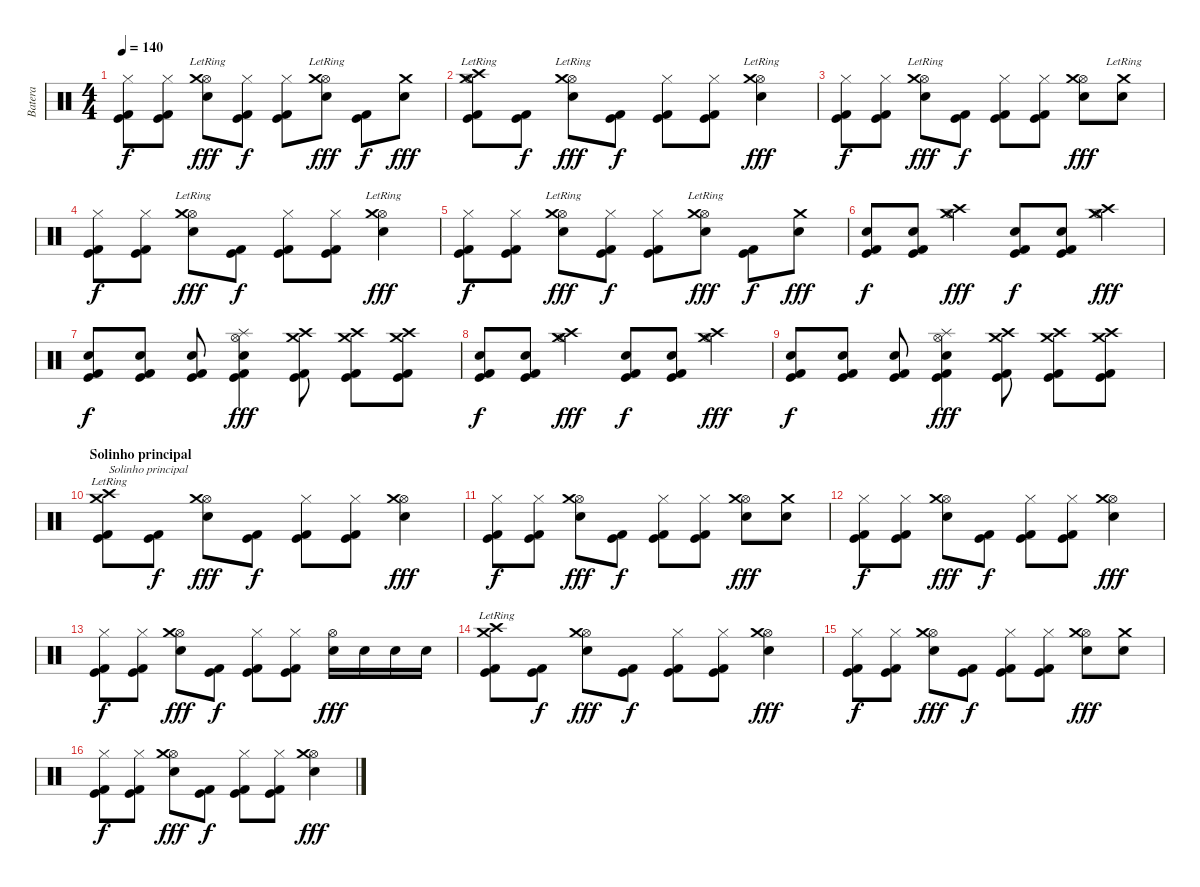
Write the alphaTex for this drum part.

\track ("Batera" "Batera") {instrument percussion}
\staff {score}
\articulation defaults
\ts (4 4)
\tempo 140
\clef neutral
\ks c
("Hi-Hat (closed)" "Kick (hit)" "Kick (hit) 2").8{dy f} ("Hi-Hat (closed)" "Kick (hit)" "Kick (hit) 2").8 ("Hi-Hat (open)" "Electric Snare (hit)" "Crash medium (hit)"{lr}).8{dy fff} ("Hi-Hat (closed)" "Kick (hit)" "Kick (hit) 2").8{dy f} ("Hi-Hat (closed)" "Kick (hit)" "Kick (hit) 2").8 ("Hi-Hat (open)" "Electric Snare (hit)" "Crash medium (hit)"{lr}).8{dy fff} ("Kick (hit)" "Kick (hit) 2").8{dy f} ("Electric Snare (hit)" "Crash medium (hit)").8{dy fff} |
("Hi-Hat (open)" "Kick (hit)" "Crash medium (hit)"{lr} "Crash high (hit)"{lr} "Kick (hit) 2").8 ("Kick (hit)" "Kick (hit) 2").8{dy f} ("Hi-Hat (open)" "Electric Snare (hit)" "Crash medium (hit)"{lr}).8{dy fff} ("Kick (hit)" "Kick (hit) 2").8{dy f} ("Hi-Hat (closed)" "Kick (hit)" "Kick (hit) 2").8 ("Hi-Hat (closed)" "Kick (hit)" "Kick (hit) 2").8 ("Hi-Hat (open)" "Electric Snare (hit)" "Crash medium (hit)"{lr}).4{dy fff} |
("Hi-Hat (closed)" "Kick (hit)" "Kick (hit) 2").8{dy f} ("Hi-Hat (closed)" "Kick (hit)" "Kick (hit) 2").8 ("Hi-Hat (open)" "Electric Snare (hit)" "Crash medium (hit)"{lr}).8{dy fff} ("Kick (hit)" "Kick (hit) 2").8{dy f} ("Hi-Hat (closed)" "Kick (hit)" "Kick (hit) 2").8 ("Hi-Hat (closed)" "Kick (hit)" "Kick (hit) 2").8 ("Hi-Hat (open)" "Electric Snare (hit)" "Crash medium (hit)").8{dy fff} ("Electric Snare (hit)" "Crash medium (hit)"{lr}).8 |
("Hi-Hat (closed)" "Kick (hit)" "Kick (hit) 2").8{dy f} ("Hi-Hat (closed)" "Kick (hit)" "Kick (hit) 2").8 ("Hi-Hat (open)" "Electric Snare (hit)" "Crash medium (hit)"{lr}).8{dy fff} ("Kick (hit)" "Kick (hit) 2").8{dy f} ("Hi-Hat (closed)" "Kick (hit)" "Kick (hit) 2").8 ("Hi-Hat (closed)" "Kick (hit)" "Kick (hit) 2").8 ("Hi-Hat (open)" "Electric Snare (hit)" "Crash medium (hit)"{lr}).4{dy fff} |
("Hi-Hat (closed)" "Kick (hit)" "Kick (hit) 2").8{dy f} ("Hi-Hat (closed)" "Kick (hit)" "Kick (hit) 2").8 ("Hi-Hat (open)" "Electric Snare (hit)" "Crash medium (hit)"{lr}).8{dy fff} ("Hi-Hat (closed)" "Kick (hit)" "Kick (hit) 2").8{dy f} ("Hi-Hat (closed)" "Kick (hit)" "Kick (hit) 2").8 ("Hi-Hat (open)" "Electric Snare (hit)" "Crash medium (hit)"{lr}).8{dy fff} ("Kick (hit)" "Kick (hit) 2").8{dy f} ("Electric Snare (hit)" "Crash medium (hit)").8{dy fff} |
("Kick (hit)" "Electric Snare (hit)" "Kick (hit) 2").8{dy f} ("Kick (hit)" "Electric Snare (hit)" "Kick (hit) 2").8 ("Hi-Hat (open)" "Crash medium (hit)" "Crash high (hit)").4{dy fff} ("Kick (hit)" "Electric Snare (hit)" "Kick (hit) 2").8{dy f} ("Kick (hit)" "Electric Snare (hit)" "Kick (hit) 2").8 ("Hi-Hat (open)" "Crash medium (hit)" "Crash high (hit)").4{dy fff} |
("Kick (hit)" "Electric Snare (hit)" "Kick (hit) 2").8{dy f} ("Kick (hit)" "Electric Snare (hit)" "Kick (hit) 2").8 ("Kick (hit)" "Electric Snare (hit)" "Kick (hit) 2").8 ("Hi-Hat (open)" "Kick (hit)" "Electric Snare (hit)" "Splash (hit)" "Kick (hit) 2").4{dy fff} ("Kick (hit)" "Crash medium (hit)" "Crash high (hit)" "Kick (hit) 2").8 ("Kick (hit)" "Crash medium (hit)" "Crash high (hit)" "Kick (hit) 2").8 ("Kick (hit)" "Crash medium (hit)" "Crash high (hit)" "Kick (hit) 2").8 |
("Kick (hit)" "Electric Snare (hit)" "Kick (hit) 2").8{dy f} ("Kick (hit)" "Electric Snare (hit)" "Kick (hit) 2").8 ("Hi-Hat (open)" "Crash medium (hit)" "Crash high (hit)").4{dy fff} ("Kick (hit)" "Electric Snare (hit)" "Kick (hit) 2").8{dy f} ("Kick (hit)" "Electric Snare (hit)" "Kick (hit) 2").8 ("Hi-Hat (open)" "Crash medium (hit)" "Crash high (hit)").4{dy fff} |
("Kick (hit)" "Electric Snare (hit)" "Kick (hit) 2").8{dy f} ("Kick (hit)" "Electric Snare (hit)" "Kick (hit) 2").8 ("Kick (hit)" "Electric Snare (hit)" "Kick (hit) 2").8 ("Hi-Hat (open)" "Kick (hit)" "Electric Snare (hit)" "Splash (hit)" "Kick (hit) 2").4{dy fff} ("Kick (hit)" "Crash medium (hit)" "Crash high (hit)" "Kick (hit) 2").8 ("Kick (hit)" "Crash medium (hit)" "Crash high (hit)" "Kick (hit) 2").8 ("Kick (hit)" "Crash medium (hit)" "Crash high (hit)" "Kick (hit) 2").8 |
\section ("" "Solinho principal")
("Kick (hit)" "Crash medium (hit)"{lr} "Crash high (hit)"{lr} "Kick (hit) 2").8{txt "Solinho principal"} ("Kick (hit)" "Kick (hit) 2").8{dy f} ("Hi-Hat (open)" "Electric Snare (hit)" "Crash medium (hit)").8{dy fff} ("Kick (hit)" "Kick (hit) 2").8{dy f} ("Hi-Hat (closed)" "Kick (hit)" "Kick (hit) 2").8 ("Hi-Hat (closed)" "Kick (hit)" "Kick (hit) 2").8 ("Hi-Hat (open)" "Electric Snare (hit)" "Crash medium (hit)").4{dy fff} |
("Hi-Hat (closed)" "Kick (hit)" "Kick (hit) 2").8{dy f} ("Hi-Hat (closed)" "Kick (hit)" "Kick (hit) 2").8 ("Hi-Hat (open)" "Electric Snare (hit)" "Crash medium (hit)").8{dy fff} ("Kick (hit)" "Kick (hit) 2").8{dy f} ("Hi-Hat (closed)" "Kick (hit)" "Kick (hit) 2").8 ("Hi-Hat (closed)" "Kick (hit)" "Kick (hit) 2").8 ("Hi-Hat (open)" "Electric Snare (hit)" "Crash medium (hit)").8{dy fff} ("Electric Snare (hit)" "Crash medium (hit)").8 |
("Hi-Hat (closed)" "Kick (hit)" "Kick (hit) 2").8{dy f} ("Hi-Hat (closed)" "Kick (hit)" "Kick (hit) 2").8 ("Hi-Hat (open)" "Electric Snare (hit)" "Crash medium (hit)").8{dy fff} ("Kick (hit)" "Kick (hit) 2").8{dy f} ("Hi-Hat (closed)" "Kick (hit)" "Kick (hit) 2").8 ("Hi-Hat (closed)" "Kick (hit)" "Kick (hit) 2").8 ("Hi-Hat (open)" "Electric Snare (hit)" "Crash medium (hit)").4{dy fff} |
("Hi-Hat (closed)" "Kick (hit)" "Kick (hit) 2").8{dy f} ("Hi-Hat (closed)" "Kick (hit)" "Kick (hit) 2").8 ("Hi-Hat (open)" "Electric Snare (hit)" "Crash medium (hit)").8{dy fff} ("Kick (hit)" "Kick (hit) 2").8{dy f} ("Hi-Hat (closed)" "Kick (hit)" "Kick (hit) 2").8 ("Hi-Hat (closed)" "Kick (hit)" "Kick (hit) 2").8 ("Hi-Hat (open)" "Metronome (bell)").16{dy fff} "Metronome (bell)".16 "Metronome (bell)".16 "Metronome (bell)".16 |
("Kick (hit)" "Crash medium (hit)"{lr} "Crash high (hit)"{lr} "Kick (hit) 2").8 ("Kick (hit)" "Kick (hit) 2").8{dy f} ("Hi-Hat (open)" "Electric Snare (hit)" "Crash medium (hit)").8{dy fff} ("Kick (hit)" "Kick (hit) 2").8{dy f} ("Hi-Hat (closed)" "Kick (hit)" "Kick (hit) 2").8 ("Hi-Hat (closed)" "Kick (hit)" "Kick (hit) 2").8 ("Hi-Hat (open)" "Electric Snare (hit)" "Crash medium (hit)").4{dy fff} |
("Hi-Hat (closed)" "Kick (hit)" "Kick (hit) 2").8{dy f} ("Hi-Hat (closed)" "Kick (hit)" "Kick (hit) 2").8 ("Hi-Hat (open)" "Electric Snare (hit)" "Crash medium (hit)").8{dy fff} ("Kick (hit)" "Kick (hit) 2").8{dy f} ("Hi-Hat (closed)" "Kick (hit)" "Kick (hit) 2").8 ("Hi-Hat (closed)" "Kick (hit)" "Kick (hit) 2").8 ("Hi-Hat (open)" "Electric Snare (hit)" "Crash medium (hit)").8{dy fff} ("Electric Snare (hit)" "Crash medium (hit)").8 |
("Hi-Hat (closed)" "Kick (hit)" "Kick (hit) 2").8{dy f} ("Hi-Hat (closed)" "Kick (hit)" "Kick (hit) 2").8 ("Hi-Hat (open)" "Electric Snare (hit)" "Crash medium (hit)").8{dy fff} ("Kick (hit)" "Kick (hit) 2").8{dy f} ("Hi-Hat (closed)" "Kick (hit)" "Kick (hit) 2").8 ("Hi-Hat (closed)" "Kick (hit)" "Kick (hit) 2").8 ("Hi-Hat (open)" "Electric Snare (hit)" "Crash medium (hit)").4{dy fff}
